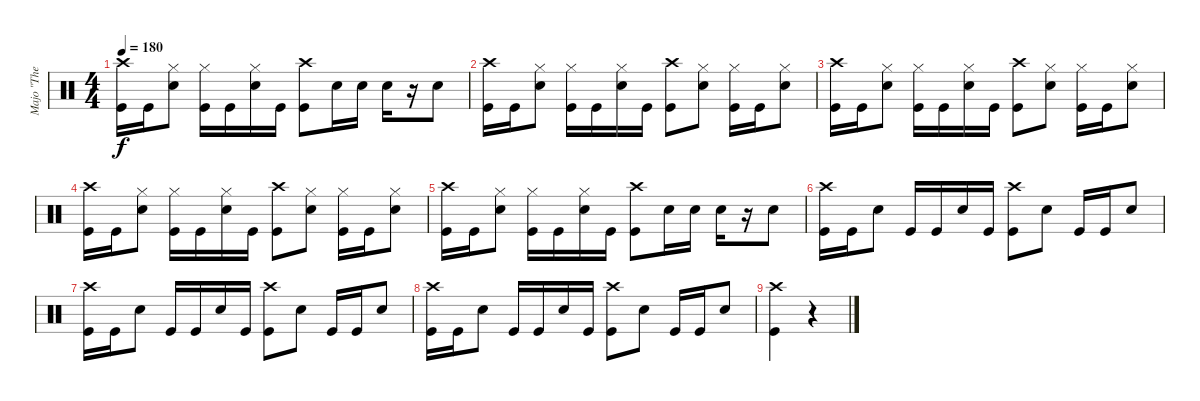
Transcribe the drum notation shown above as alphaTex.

\track ("Majo \"The Dremmel\" Hirt" "Majo \"The ") {instrument percussion}
\staff {score}
\articulation defaults
\ts (4 4)
\tempo 180
\clef neutral
\ks c
("Crash high (hit)" "Kick (hit)").16{dy f} "Kick (hit)".16 ("Hi-Hat (closed)" "Electric Snare (hit)").8 ("Hi-Hat (closed)" "Kick (hit)").16 "Kick (hit)".16 ("Hi-Hat (closed)" "Electric Snare (hit)").16 "Kick (hit)".16 ("Crash high (hit)" "Kick (hit)").8 "Snare (hit) 2".16 "Snare (hit) 2".16 "Snare (hit) 2".16 r.16 "Snare (hit) 2".8 |
("Crash high (hit)" "Kick (hit)").16 "Kick (hit)".16 ("Hi-Hat (closed)" "Electric Snare (hit)").8 ("Hi-Hat (closed)" "Kick (hit)").16 "Kick (hit)".16 ("Hi-Hat (closed)" "Electric Snare (hit)").16 "Kick (hit)".16 ("Crash high (hit)" "Kick (hit)").8 ("Hi-Hat (closed)" "Electric Snare (hit)").8 ("Hi-Hat (closed)" "Kick (hit)").16 "Kick (hit)".16 ("Hi-Hat (closed)" "Electric Snare (hit)").8 |
("Crash high (hit)" "Kick (hit)").16 "Kick (hit)".16 ("Hi-Hat (closed)" "Electric Snare (hit)").8 ("Hi-Hat (closed)" "Kick (hit)").16 "Kick (hit)".16 ("Hi-Hat (closed)" "Electric Snare (hit)").16 "Kick (hit)".16 ("Crash high (hit)" "Kick (hit)").8 ("Hi-Hat (closed)" "Electric Snare (hit)").8 ("Hi-Hat (closed)" "Kick (hit)").16 "Kick (hit)".16 ("Hi-Hat (closed)" "Electric Snare (hit)").8 |
("Crash high (hit)" "Kick (hit)").16 "Kick (hit)".16 ("Hi-Hat (closed)" "Electric Snare (hit)").8 ("Hi-Hat (closed)" "Kick (hit)").16 "Kick (hit)".16 ("Hi-Hat (closed)" "Electric Snare (hit)").16 "Kick (hit)".16 ("Crash high (hit)" "Kick (hit)").8 ("Hi-Hat (closed)" "Electric Snare (hit)").8 ("Hi-Hat (closed)" "Kick (hit)").16 "Kick (hit)".16 ("Hi-Hat (closed)" "Electric Snare (hit)").8 |
("Crash high (hit)" "Kick (hit)").16 "Kick (hit)".16 ("Hi-Hat (closed)" "Electric Snare (hit)").8 ("Hi-Hat (closed)" "Kick (hit)").16 "Kick (hit)".16 ("Hi-Hat (closed)" "Electric Snare (hit)").16 "Kick (hit)".16 ("Crash high (hit)" "Kick (hit)").8 "Snare (hit) 2".16 "Snare (hit) 2".16 "Snare (hit) 2".16 r.16 "Snare (hit) 2".8 |
("Crash high (hit)" "Kick (hit)").16 "Kick (hit)".16 "Electric Snare (hit)".8 "Kick (hit)".16 "Kick (hit)".16 "Electric Snare (hit)".16 "Kick (hit)".16 ("Crash high (hit)" "Kick (hit)").8 "Electric Snare (hit)".8 "Kick (hit)".16 "Kick (hit)".16 "Electric Snare (hit)".8 |
("Crash high (hit)" "Kick (hit)").16 "Kick (hit)".16 "Electric Snare (hit)".8 "Kick (hit)".16 "Kick (hit)".16 "Electric Snare (hit)".16 "Kick (hit)".16 ("Crash high (hit)" "Kick (hit)").8 "Electric Snare (hit)".8 "Kick (hit)".16 "Kick (hit)".16 "Electric Snare (hit)".8 |
("Crash high (hit)" "Kick (hit)").16 "Kick (hit)".16 "Electric Snare (hit)".8 "Kick (hit)".16 "Kick (hit)".16 "Electric Snare (hit)".16 "Kick (hit)".16 ("Crash high (hit)" "Kick (hit)").8 "Electric Snare (hit)".8 "Kick (hit)".16 "Kick (hit)".16 "Electric Snare (hit)".8 |
("Crash high (hit)" "Kick (hit)").4 r.4
